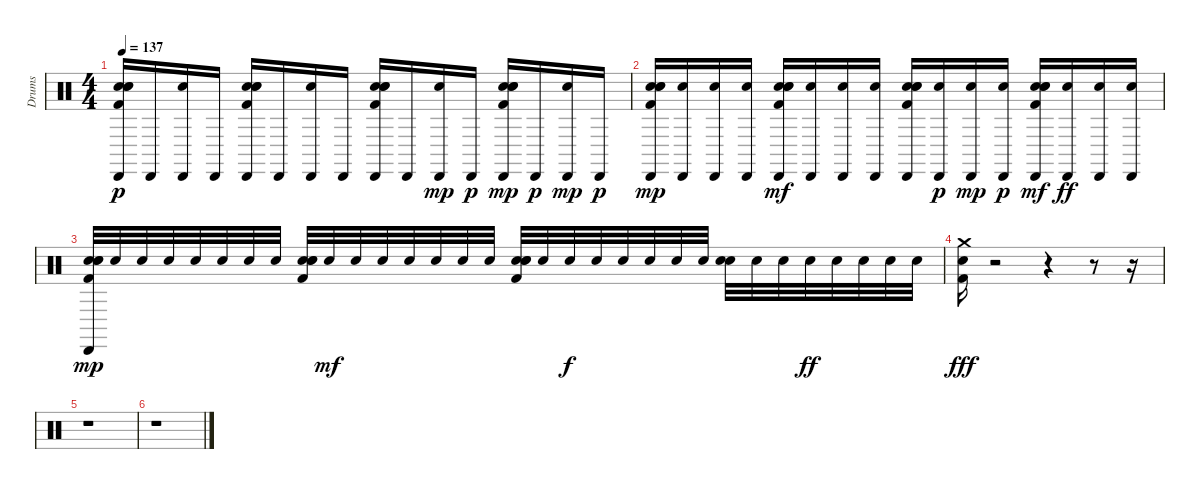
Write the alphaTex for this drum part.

\track ("Drums" "Drums") {instrument percussion}
\staff {score}
\articulation defaults
\ts (4 4)
\tempo 137
\clef neutral
\ks c
("Cabasa (hit)" "Kick (hit) 2" "Snare (hit)" "Hand Clap (hit)" "Electric Snare (hit)").16{dy p} "Cabasa (hit)".16 ("Cabasa (hit)" "Electric Snare (hit)").16 "Cabasa (hit)".16 ("Cabasa (hit)" "Snare (hit)" "Kick (hit) 2" "Hand Clap (hit)" "Electric Snare (hit)").16 "Cabasa (hit)".16 ("Cabasa (hit)" "Electric Snare (hit)").16 "Cabasa (hit)".16 ("Cabasa (hit)" "Snare (hit)" "Kick (hit) 2" "Hand Clap (hit)" "Electric Snare (hit)").16 "Cabasa (hit)".16 ("Cabasa (hit)" "Electric Snare (hit)").16{dy mp} "Cabasa (hit)".16{dy p} ("Cabasa (hit)" "Snare (hit)" "Kick (hit) 2" "Hand Clap (hit)" "Electric Snare (hit)").16{dy mp} "Cabasa (hit)".16{dy p} ("Cabasa (hit)" "Electric Snare (hit)").16{dy mp} "Cabasa (hit)".16{dy p} |
("Cabasa (hit)" "Kick (hit) 2" "Snare (hit)" "Hand Clap (hit)" "Electric Snare (hit)").16{dy mp} ("Cabasa (hit)" "Electric Snare (hit)").16 ("Cabasa (hit)" "Electric Snare (hit)").16 ("Cabasa (hit)" "Electric Snare (hit)").16 ("Cabasa (hit)" "Snare (hit)" "Kick (hit) 2" "Hand Clap (hit)" "Electric Snare (hit)").16{dy mf} ("Cabasa (hit)" "Electric Snare (hit)").16 ("Cabasa (hit)" "Electric Snare (hit)").16 ("Cabasa (hit)" "Electric Snare (hit)").16 ("Cabasa (hit)" "Snare (hit)" "Kick (hit) 2" "Hand Clap (hit)" "Electric Snare (hit)").16 ("Cabasa (hit)" "Electric Snare (hit)").16{dy p} ("Cabasa (hit)" "Electric Snare (hit)").16{dy mp} ("Cabasa (hit)" "Electric Snare (hit)").16{dy p} ("Cabasa (hit)" "Snare (hit)" "Kick (hit) 2" "Hand Clap (hit)" "Electric Snare (hit)").16{dy mf} ("Cabasa (hit)" "Electric Snare (hit)").16{dy ff} ("Cabasa (hit)" "Electric Snare (hit)").16 ("Cabasa (hit)" "Electric Snare (hit)").16 |
("Cabasa (hit)" "Kick (hit) 2" "Snare (hit)" "Hand Clap (hit)" "Electric Snare (hit)").32{dy mp} "Electric Snare (hit)".32 "Electric Snare (hit)".32 "Electric Snare (hit)".32 "Electric Snare (hit)".32 "Electric Snare (hit)".32 "Electric Snare (hit)".32 "Electric Snare (hit)".32 ("Snare (hit)" "Kick (hit) 2" "Hand Clap (hit)" "Electric Snare (hit)").32 "Electric Snare (hit)".32{dy mf} "Electric Snare (hit)".32 "Electric Snare (hit)".32 "Electric Snare (hit)".32 "Electric Snare (hit)".32 "Electric Snare (hit)".32 "Electric Snare (hit)".32 ("Snare (hit)" "Kick (hit) 2" "Hand Clap (hit)" "Electric Snare (hit)").32 "Electric Snare (hit)".32 "Electric Snare (hit)".32{dy f} "Electric Snare (hit)".32 "Electric Snare (hit)".32 "Electric Snare (hit)".32 "Electric Snare (hit)".32 "Electric Snare (hit)".32 ("Hand Clap (hit)" "Electric Snare (hit)").32 "Electric Snare (hit)".32 "Electric Snare (hit)".32 "Electric Snare (hit)".32{dy ff} "Electric Snare (hit)".32 "Electric Snare (hit)".32 "Electric Snare (hit)".32 "Electric Snare (hit)".32 |
("Crash medium (hit)" "Kick (hit) 2" "Snare (hit)").16{dy fff} r.2 r.4 r.8 r.16 |
r.1 |
r.1
